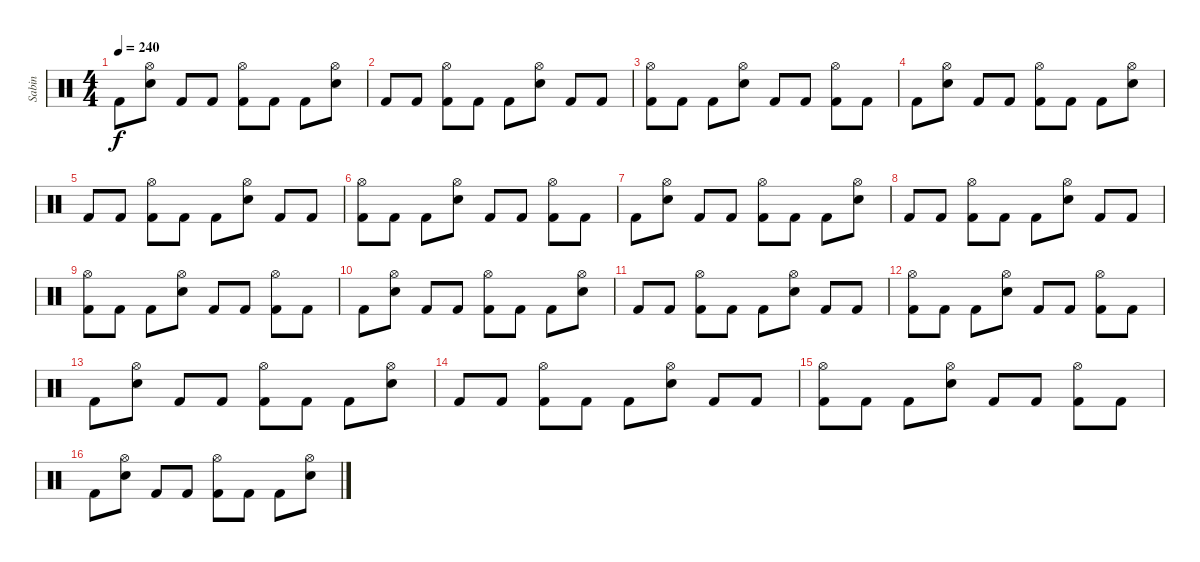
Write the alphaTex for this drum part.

\track ("Sabin" "Sabin") {instrument percussion}
\staff {score}
\articulation defaults
\ts (4 4)
\tempo 240
\clef neutral
\ks c "Kick (hit) 2".8{dy f}
("Hi-Hat (open)" "Snare (hit) 2").8 "Kick (hit) 2".8 "Kick (hit) 2".8 ("Hi-Hat (open)" "Kick (hit) 2").8 "Kick (hit) 2".8 "Kick (hit) 2".8 ("Hi-Hat (open)" "Snare (hit) 2").8 |
"Kick (hit) 2".8 "Kick (hit) 2".8 ("Hi-Hat (open)" "Kick (hit) 2").8 "Kick (hit) 2".8 "Kick (hit) 2".8 ("Hi-Hat (open)" "Snare (hit) 2").8 "Kick (hit) 2".8 "Kick (hit) 2".8 |
("Hi-Hat (open)" "Kick (hit) 2").8 "Kick (hit) 2".8 "Kick (hit) 2".8 ("Hi-Hat (open)" "Snare (hit) 2").8 "Kick (hit) 2".8 "Kick (hit) 2".8 ("Hi-Hat (open)" "Kick (hit) 2").8 "Kick (hit) 2".8 |
"Kick (hit) 2".8 ("Hi-Hat (open)" "Snare (hit) 2").8 "Kick (hit) 2".8 "Kick (hit) 2".8 ("Hi-Hat (open)" "Kick (hit) 2").8 "Kick (hit) 2".8 "Kick (hit) 2".8 ("Hi-Hat (open)" "Snare (hit) 2").8 |
"Kick (hit) 2".8 "Kick (hit) 2".8 ("Hi-Hat (open)" "Kick (hit) 2").8 "Kick (hit) 2".8 "Kick (hit) 2".8 ("Hi-Hat (open)" "Snare (hit) 2").8 "Kick (hit) 2".8 "Kick (hit) 2".8 |
("Hi-Hat (open)" "Kick (hit) 2").8 "Kick (hit) 2".8 "Kick (hit) 2".8 ("Hi-Hat (open)" "Snare (hit) 2").8 "Kick (hit) 2".8 "Kick (hit) 2".8 ("Hi-Hat (open)" "Kick (hit) 2").8 "Kick (hit) 2".8 |
"Kick (hit) 2".8 ("Hi-Hat (open)" "Snare (hit) 2").8 "Kick (hit) 2".8 "Kick (hit) 2".8 ("Hi-Hat (open)" "Kick (hit) 2").8 "Kick (hit) 2".8 "Kick (hit) 2".8 ("Hi-Hat (open)" "Snare (hit) 2").8 |
"Kick (hit) 2".8 "Kick (hit) 2".8 ("Hi-Hat (open)" "Kick (hit) 2").8 "Kick (hit) 2".8 "Kick (hit) 2".8 ("Hi-Hat (open)" "Snare (hit) 2").8 "Kick (hit) 2".8 "Kick (hit) 2".8 |
("Hi-Hat (open)" "Kick (hit) 2").8 "Kick (hit) 2".8 "Kick (hit) 2".8 ("Hi-Hat (open)" "Snare (hit) 2").8 "Kick (hit) 2".8 "Kick (hit) 2".8 ("Hi-Hat (open)" "Kick (hit) 2").8 "Kick (hit) 2".8 |
"Kick (hit) 2".8 ("Hi-Hat (open)" "Snare (hit) 2").8 "Kick (hit) 2".8 "Kick (hit) 2".8 ("Hi-Hat (open)" "Kick (hit) 2").8 "Kick (hit) 2".8 "Kick (hit) 2".8 ("Hi-Hat (open)" "Snare (hit) 2").8 |
"Kick (hit) 2".8 "Kick (hit) 2".8 ("Hi-Hat (open)" "Kick (hit) 2").8 "Kick (hit) 2".8 "Kick (hit) 2".8 ("Hi-Hat (open)" "Snare (hit) 2").8 "Kick (hit) 2".8 "Kick (hit) 2".8 |
("Hi-Hat (open)" "Kick (hit) 2").8 "Kick (hit) 2".8 "Kick (hit) 2".8 ("Hi-Hat (open)" "Snare (hit) 2").8 "Kick (hit) 2".8 "Kick (hit) 2".8 ("Hi-Hat (open)" "Kick (hit) 2").8 "Kick (hit) 2".8 |
"Kick (hit) 2".8 ("Hi-Hat (open)" "Snare (hit) 2").8 "Kick (hit) 2".8 "Kick (hit) 2".8 ("Hi-Hat (open)" "Kick (hit) 2").8 "Kick (hit) 2".8 "Kick (hit) 2".8 ("Hi-Hat (open)" "Snare (hit) 2").8 |
"Kick (hit) 2".8 "Kick (hit) 2".8 ("Hi-Hat (open)" "Kick (hit) 2").8 "Kick (hit) 2".8 "Kick (hit) 2".8 ("Hi-Hat (open)" "Snare (hit) 2").8 "Kick (hit) 2".8 "Kick (hit) 2".8 |
("Hi-Hat (open)" "Kick (hit) 2").8 "Kick (hit) 2".8 "Kick (hit) 2".8 ("Hi-Hat (open)" "Snare (hit) 2").8 "Kick (hit) 2".8 "Kick (hit) 2".8 ("Hi-Hat (open)" "Kick (hit) 2").8 "Kick (hit) 2".8 |
"Kick (hit) 2".8 ("Hi-Hat (open)" "Snare (hit) 2").8 "Kick (hit) 2".8 "Kick (hit) 2".8 ("Hi-Hat (open)" "Kick (hit) 2").8 "Kick (hit) 2".8 "Kick (hit) 2".8 ("Hi-Hat (open)" "Snare (hit) 2").8
